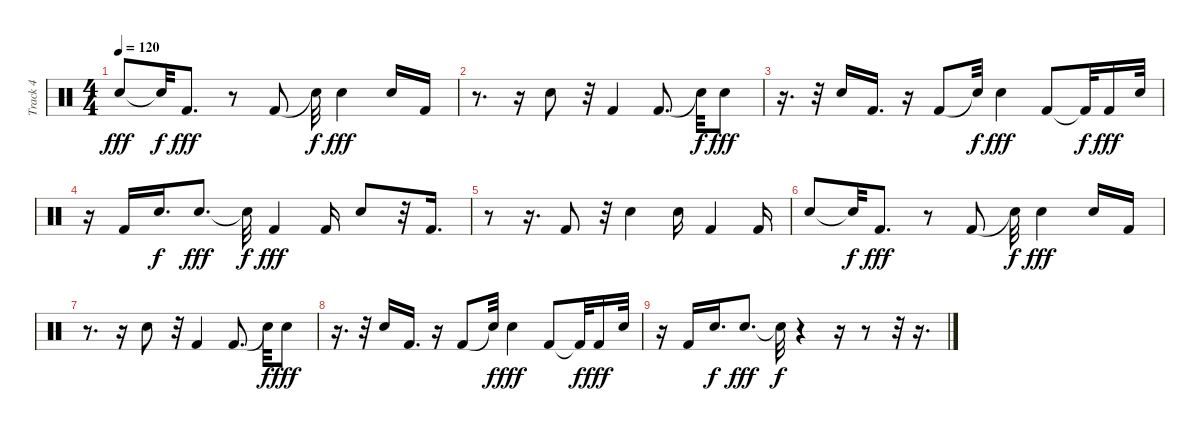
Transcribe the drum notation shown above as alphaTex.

\track ("Track 4" "Track 4") {instrument percussion}
\staff {score}
\articulation defaults
\ts (4 4)
\tempo 120
\clef neutral
\ks c "Snare (hit) 2".8{dy fff} "Snare (hit)"{t}.32{dy f} "Kick (hit) 2".8{d dy fff}
r.8 "Kick (hit) 2".8 "Snare (hit)"{t}.32{dy f} "Snare (hit) 2".4{dy fff} "Snare (hit) 2".16 "Kick (hit) 2".16 |
r.8{d} r.16 "Snare (hit) 2".8 r.32 "Kick (hit) 2".4 "Kick (hit) 2".8{d} "Snare (hit)"{t}.32{dy f} "Snare (hit) 2".8{dy fff} |
r.16{d} r.32 "Snare (hit) 2".16 "Kick (hit) 2".16{d} r.16 "Kick (hit) 2".8 "Snare (hit)"{t}.32{dy f} "Snare (hit) 2".4{dy fff} "Kick (hit) 2".8 "Kick (hit) 2"{t}.32{dy f} "Kick (hit) 2".16{dy fff} "Snare (hit) 2".32 |
r.16 "Kick (hit) 2".16 "Snare (hit) 2".16{d dy f} "Snare (hit) 2".8{d dy fff} "Snare (hit)"{t}.32{dy f} "Kick (hit) 2".4{dy fff} "Kick (hit) 2".16 "Snare (hit) 2".8 r.32 "Kick (hit) 2".16{d} |
r.8 r.16{d} "Kick (hit) 2".8 r.32 "Snare (hit) 2".4 "Snare (hit) 2".16 "Kick (hit) 2".4 "Kick (hit) 2".16 |
"Snare (hit) 2".8 "Snare (hit)"{t}.32{dy f} "Kick (hit) 2".8{d dy fff} r.8 "Kick (hit) 2".8 "Snare (hit)"{t}.32{dy f} "Snare (hit) 2".4{dy fff} "Snare (hit) 2".16 "Kick (hit) 2".16 |
r.8{d} r.16 "Snare (hit) 2".8 r.32 "Kick (hit) 2".4 "Kick (hit) 2".8{d} "Snare (hit)"{t}.32{dy f} "Snare (hit) 2".8{dy fff} |
r.16{d} r.32 "Snare (hit) 2".16 "Kick (hit) 2".16{d} r.16 "Kick (hit) 2".8 "Snare (hit)"{t}.32{dy f} "Snare (hit) 2".4{dy fff} "Kick (hit) 2".8 "Kick (hit) 2"{t}.32{dy f} "Kick (hit) 2".16{dy fff} "Snare (hit) 2".32 |
r.16 "Kick (hit) 2".16 "Snare (hit) 2".16{d dy f} "Snare (hit) 2".8{d dy fff} "Snare (hit)"{t}.32{dy f} r.4 r.16 r.8 r.32 r.16{d}
